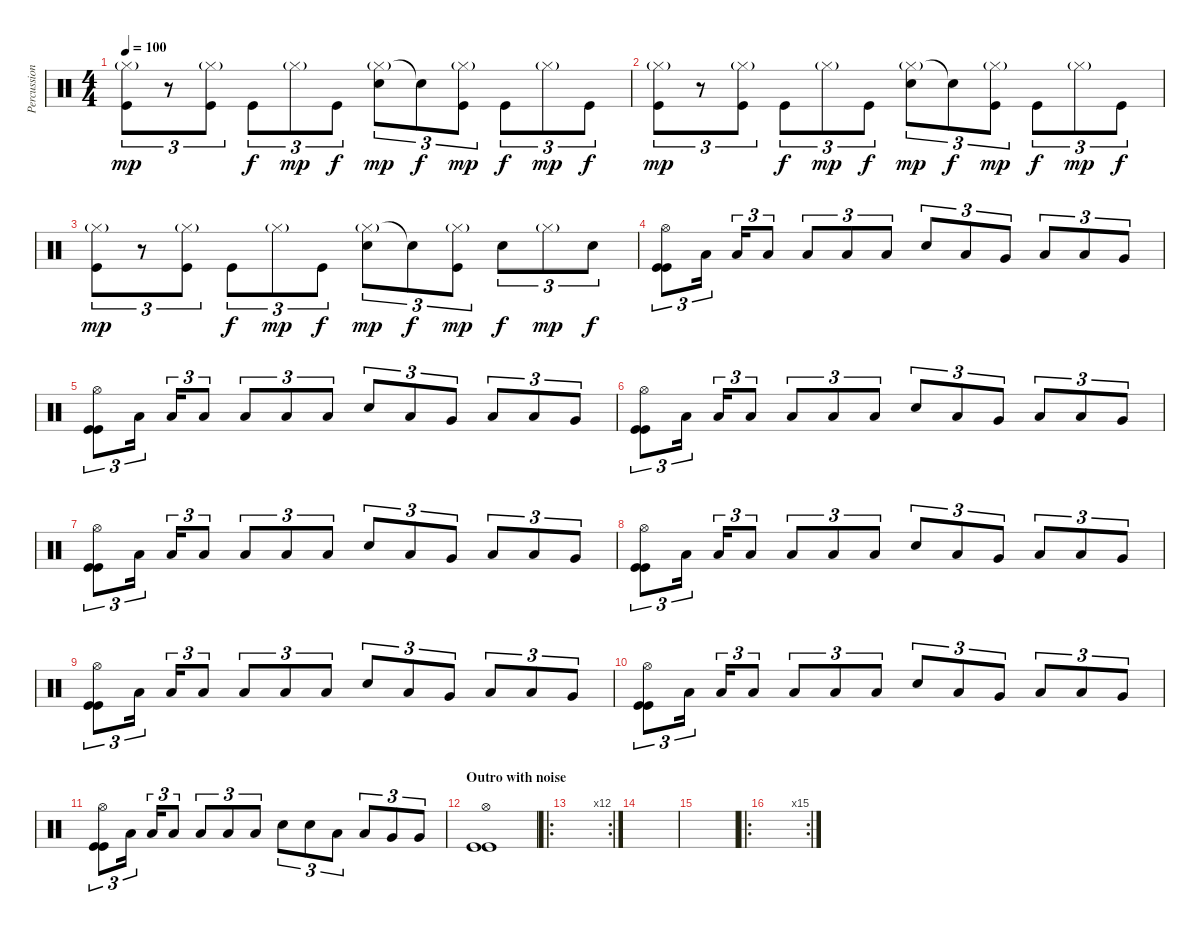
\track ("Percussions" "Percussion") {instrument percussion}
\staff {score}
\articulation defaults
\ts (4 4)
\tempo 100
\clef neutral
\ks c
("Hi-Hat (closed)"{g} "Kick (hit)").8{tu (3 2) dy mp} r.8{tu (3 2)} ("Hi-Hat (closed)"{g} "Kick (hit)").8{tu (3 2)} "Kick (hit)".8{tu (3 2) dy f} "Hi-Hat (closed)"{g}.8{tu (3 2) dy mp} "Kick (hit)".8{tu (3 2) dy f} ("Hi-Hat (closed)"{g} "Electric Snare (hit)").8{tu (3 2) dy mp} "Snare (hit)"{t}.8{tu (3 2) dy f} ("Hi-Hat (closed)"{g} "Kick (hit)").8{tu (3 2) dy mp} "Kick (hit)".8{tu (3 2) dy f} "Hi-Hat (closed)"{g}.8{tu (3 2) dy mp} "Kick (hit)".8{tu (3 2) dy f} |
("Hi-Hat (closed)"{g} "Kick (hit)").8{tu (3 2) dy mp} r.8{tu (3 2)} ("Hi-Hat (closed)"{g} "Kick (hit)").8{tu (3 2)} "Kick (hit)".8{tu (3 2) dy f} "Hi-Hat (closed)"{g}.8{tu (3 2) dy mp} "Kick (hit)".8{tu (3 2) dy f} ("Hi-Hat (closed)"{g} "Electric Snare (hit)").8{tu (3 2) dy mp} "Snare (hit)"{t}.8{tu (3 2) dy f} ("Hi-Hat (closed)"{g} "Kick (hit)").8{tu (3 2) dy mp} "Kick (hit)".8{tu (3 2) dy f} "Hi-Hat (closed)"{g}.8{tu (3 2) dy mp} "Kick (hit)".8{tu (3 2) dy f} |
("Hi-Hat (closed)"{g} "Kick (hit)").8{tu (3 2) dy mp} r.8{tu (3 2)} ("Hi-Hat (closed)"{g} "Kick (hit)").8{tu (3 2)} "Kick (hit)".8{tu (3 2) dy f} "Hi-Hat (closed)"{g}.8{tu (3 2) dy mp} "Kick (hit)".8{tu (3 2) dy f} ("Hi-Hat (closed)"{g} "Electric Snare (hit)").8{tu (3 2) dy mp} "Snare (hit)"{t}.8{tu (3 2) dy f} ("Hi-Hat (closed)"{g} "Kick (hit)").8{tu (3 2) dy mp} "Electric Snare (hit)".8{tu (3 2) dy f} "Hi-Hat (closed)"{g}.8{tu (3 2) dy mp} "Electric Snare (hit)".8{tu (3 2) dy f} |
("Hi-Hat (open)" "Kick (hit)" "Kick (hit)").8{tu (3 2)} "Low Tom (hit)".16{tu (3 2)} "Low Tom (hit)".16{tu (3 2)} "Low Tom (hit)".8{tu (3 2)} "Low Tom (hit)".8{tu (3 2)} "Low Tom (hit)".8{tu (3 2)} "Low Tom (hit)".8{tu (3 2)} "Electric Snare (hit)".8{tu (3 2)} "Low Tom (hit)".8{tu (3 2)} "Very Low Tom (hit)".8{tu (3 2)} "Low Tom (hit)".8{tu (3 2)} "Low Floor Tom (hit)".8{tu (3 2)} "Very Low Tom (hit)".8{tu (3 2)} |
("Hi-Hat (open)" "Kick (hit)" "Kick (hit)").8{tu (3 2)} "Low Tom (hit)".16{tu (3 2)} "Low Tom (hit)".16{tu (3 2)} "Low Tom (hit)".8{tu (3 2)} "Low Tom (hit)".8{tu (3 2)} "Low Tom (hit)".8{tu (3 2)} "Low Tom (hit)".8{tu (3 2)} "Electric Snare (hit)".8{tu (3 2)} "Low Tom (hit)".8{tu (3 2)} "Very Low Tom (hit)".8{tu (3 2)} "Low Tom (hit)".8{tu (3 2)} "Low Floor Tom (hit)".8{tu (3 2)} "Very Low Tom (hit)".8{tu (3 2)} |
("Hi-Hat (open)" "Kick (hit)" "Kick (hit)").8{tu (3 2)} "Low Tom (hit)".16{tu (3 2)} "Low Tom (hit)".16{tu (3 2)} "Low Tom (hit)".8{tu (3 2)} "Low Tom (hit)".8{tu (3 2)} "Low Tom (hit)".8{tu (3 2)} "Low Tom (hit)".8{tu (3 2)} "Electric Snare (hit)".8{tu (3 2)} "Low Tom (hit)".8{tu (3 2)} "Very Low Tom (hit)".8{tu (3 2)} "Low Tom (hit)".8{tu (3 2)} "Low Floor Tom (hit)".8{tu (3 2)} "Very Low Tom (hit)".8{tu (3 2)} |
("Hi-Hat (open)" "Kick (hit)" "Kick (hit)").8{tu (3 2)} "Low Tom (hit)".16{tu (3 2)} "Low Tom (hit)".16{tu (3 2)} "Low Tom (hit)".8{tu (3 2)} "Low Tom (hit)".8{tu (3 2)} "Low Tom (hit)".8{tu (3 2)} "Low Tom (hit)".8{tu (3 2)} "Electric Snare (hit)".8{tu (3 2)} "Low Tom (hit)".8{tu (3 2)} "Very Low Tom (hit)".8{tu (3 2)} "Low Tom (hit)".8{tu (3 2)} "Low Floor Tom (hit)".8{tu (3 2)} "Very Low Tom (hit)".8{tu (3 2)} |
("Hi-Hat (open)" "Kick (hit)" "Kick (hit)").8{tu (3 2)} "Low Tom (hit)".16{tu (3 2)} "Low Tom (hit)".16{tu (3 2)} "Low Tom (hit)".8{tu (3 2)} "Low Tom (hit)".8{tu (3 2)} "Low Tom (hit)".8{tu (3 2)} "Low Tom (hit)".8{tu (3 2)} "Electric Snare (hit)".8{tu (3 2)} "Low Tom (hit)".8{tu (3 2)} "Very Low Tom (hit)".8{tu (3 2)} "Low Tom (hit)".8{tu (3 2)} "Low Floor Tom (hit)".8{tu (3 2)} "Very Low Tom (hit)".8{tu (3 2)} |
("Hi-Hat (open)" "Kick (hit)" "Kick (hit)").8{tu (3 2)} "Low Tom (hit)".16{tu (3 2)} "Low Tom (hit)".16{tu (3 2)} "Low Tom (hit)".8{tu (3 2)} "Low Tom (hit)".8{tu (3 2)} "Low Tom (hit)".8{tu (3 2)} "Low Tom (hit)".8{tu (3 2)} "Electric Snare (hit)".8{tu (3 2)} "Low Tom (hit)".8{tu (3 2)} "Very Low Tom (hit)".8{tu (3 2)} "Low Tom (hit)".8{tu (3 2)} "Low Floor Tom (hit)".8{tu (3 2)} "Very Low Tom (hit)".8{tu (3 2)} |
("Hi-Hat (open)" "Kick (hit)" "Kick (hit)").8{tu (3 2)} "Low Tom (hit)".16{tu (3 2)} "Low Tom (hit)".16{tu (3 2)} "Low Tom (hit)".8{tu (3 2)} "Low Tom (hit)".8{tu (3 2)} "Low Tom (hit)".8{tu (3 2)} "Low Tom (hit)".8{tu (3 2)} "Electric Snare (hit)".8{tu (3 2)} "Low Tom (hit)".8{tu (3 2)} "Very Low Tom (hit)".8{tu (3 2)} "Low Tom (hit)".8{tu (3 2)} "Low Floor Tom (hit)".8{tu (3 2)} "Very Low Tom (hit)".8{tu (3 2)} |
("Hi-Hat (open)" "Kick (hit)" "Kick (hit)").8{tu (3 2)} "Low Tom (hit)".16{tu (3 2)} "Low Tom (hit)".16{tu (3 2)} "Low Tom (hit)".8{tu (3 2)} "Low Tom (hit)".8{tu (3 2)} "Low Tom (hit)".8{tu (3 2)} "Low Tom (hit)".8{tu (3 2)} "Electric Snare (hit)".8{tu (3 2)} "Electric Snare (hit)".8{tu (3 2)} "Low Tom (hit)".8{tu (3 2)} "Low Tom (hit)".8{tu (3 2)} "Very Low Tom (hit)".8{tu (3 2)} "Very Low Tom (hit)".8{tu (3 2)} |
\section ("" "Outro with noise")
("Hi-Hat (open)" "Kick (hit)" "Kick (hit)").1 |
\ro
\rc 12
|
|
|
\ro
\rc 15
